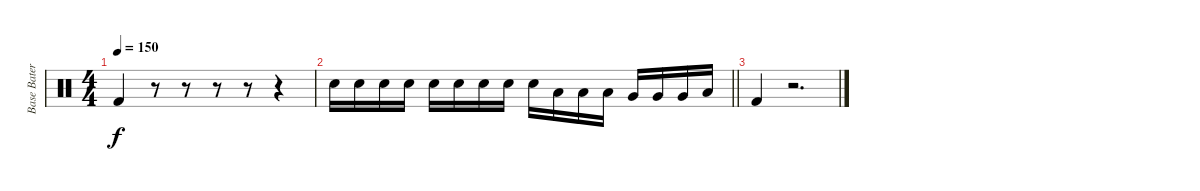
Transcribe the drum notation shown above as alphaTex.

\track ("Base Batería" "Base Bater") {instrument percussion}
\staff {score}
\articulation defaults
\ts (4 4)
\tempo 150
\clef neutral
\ks c "Kick (hit) 2".4{dy f}
r.8 r.8 r.8 r.8 r.4 |
\barLineRight lightlight "Electric Snare (hit)".16 "Electric Snare (hit)".16 "Electric Snare (hit)".16 "Electric Snare (hit)".16 "Electric Snare (hit)".16 "Electric Snare (hit)".16 "Electric Snare (hit)".16 "Electric Snare (hit)".16 "Electric Snare (hit)".16 "Low Tom (hit)".16 "Low Tom (hit)".16 "Low Tom (hit)".16 "Very Low Tom (hit)".16 "Very Low Tom (hit)".16 "Very Low Tom (hit)".16 "Low Floor Tom (hit)".16
|
"Kick (hit) 2".4 r.2{d}
